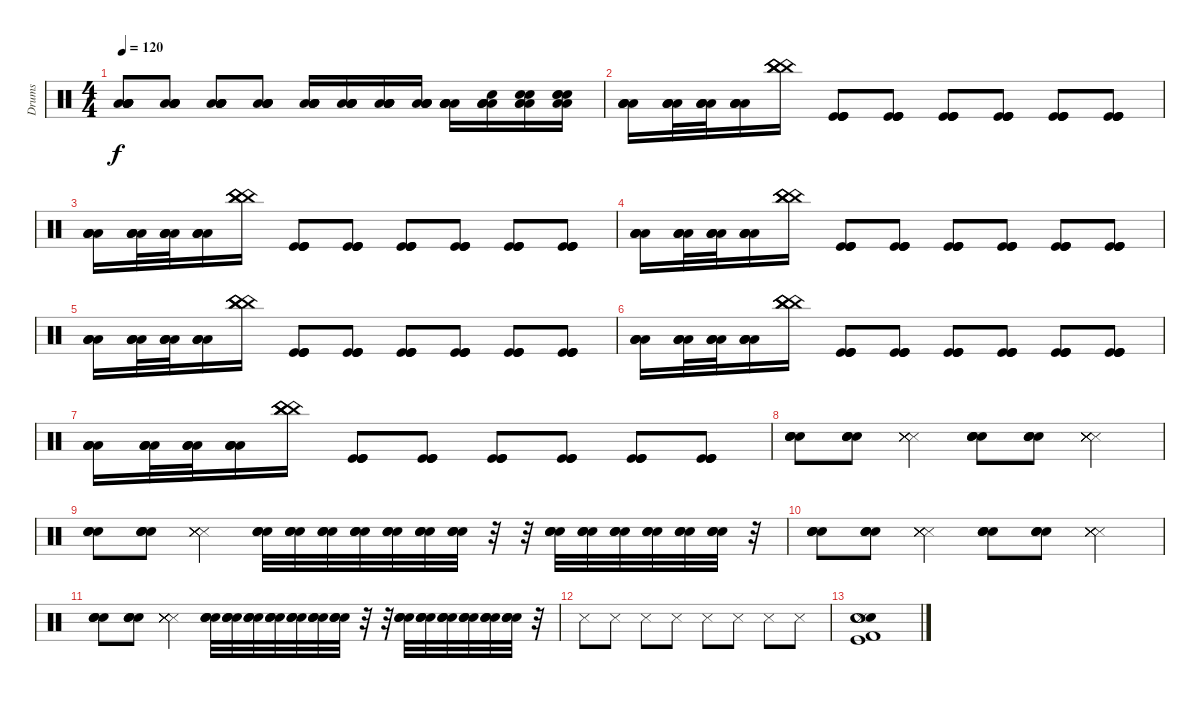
\track ("Drums" "Drums") {instrument percussion}
\staff {score}
\articulation defaults
\ts (4 4)
\tempo 120
\clef neutral
\ks c
("Low Floor Tom (hit)" "Low Floor Tom (hit)" "Low Floor Tom (hit)" "Low Floor Tom (hit)" "Low Floor Tom (hit)").8{dy f} ("Low Floor Tom (hit)" "Low Floor Tom (hit)" "Low Floor Tom (hit)" "Low Floor Tom (hit)" "Low Floor Tom (hit)").8 ("Low Floor Tom (hit)" "Low Floor Tom (hit)" "Low Floor Tom (hit)" "Low Floor Tom (hit)" "Low Floor Tom (hit)").8 ("Low Floor Tom (hit)" "Low Floor Tom (hit)" "Low Floor Tom (hit)" "Low Floor Tom (hit)" "Low Floor Tom (hit)").8 ("Low Floor Tom (hit)" "Low Floor Tom (hit)" "Low Floor Tom (hit)" "Low Floor Tom (hit)" "Low Floor Tom (hit)").16 ("Low Floor Tom (hit)" "Low Floor Tom (hit)" "Low Floor Tom (hit)" "Low Floor Tom (hit)" "Low Floor Tom (hit)").16 ("Low Floor Tom (hit)" "Low Floor Tom (hit)" "Low Floor Tom (hit)" "Low Floor Tom (hit)" "Low Floor Tom (hit)").16 ("Low Floor Tom (hit)" "Low Floor Tom (hit)" "Low Floor Tom (hit)" "Low Floor Tom (hit)" "Low Floor Tom (hit)").16 ("Low Floor Tom (hit)" "Low Floor Tom (hit)" "Low Floor Tom (hit)" "Low Floor Tom (hit)" "Low Floor Tom (hit)").16 ("Low Floor Tom (hit)" "Low Floor Tom (hit)" "Low Floor Tom (hit)" "Snare (hit) 2" "Low Floor Tom (hit)").16 ("Low Floor Tom (hit)" "Low Floor Tom (hit)" "Snare (hit) 2" "Snare (hit) 2" "Low Floor Tom (hit)").16 ("Low Floor Tom (hit)" "Snare (hit) 2" "Snare (hit) 2" "Snare (hit) 2" "Low Floor Tom (hit)").16 |
("Low Floor Tom (hit)" "Low Floor Tom (hit)" "Low Floor Tom (hit)" "Low Floor Tom (hit)").16 ("Low Floor Tom (hit)" "Low Floor Tom (hit)" "Low Floor Tom (hit)" "Low Floor Tom (hit)").32 ("Low Floor Tom (hit)" "Low Floor Tom (hit)" "Low Floor Tom (hit)" "Low Floor Tom (hit)").32 ("Low Floor Tom (hit)" "Low Floor Tom (hit)" "Low Floor Tom (hit)" "Low Floor Tom (hit)").16 ("China (hit)" "China (hit)" "China (hit)" "China (hit)").16 ("Kick (hit)" "Kick (hit)" "Kick (hit)" "Kick (hit)").8 ("Kick (hit)" "Kick (hit)" "Kick (hit)" "Kick (hit)").8 ("Kick (hit)" "Kick (hit)" "Kick (hit)" "Kick (hit)").8 ("Kick (hit)" "Kick (hit)" "Kick (hit)" "Kick (hit)").8 ("Kick (hit)" "Kick (hit)" "Kick (hit)" "Kick (hit)").8 ("Kick (hit)" "Kick (hit)" "Kick (hit)" "Kick (hit)").8 |
("Low Floor Tom (hit)" "Low Floor Tom (hit)" "Low Floor Tom (hit)" "Low Floor Tom (hit)").16 ("Low Floor Tom (hit)" "Low Floor Tom (hit)" "Low Floor Tom (hit)" "Low Floor Tom (hit)").32 ("Low Floor Tom (hit)" "Low Floor Tom (hit)" "Low Floor Tom (hit)" "Low Floor Tom (hit)").32 ("Low Floor Tom (hit)" "Low Floor Tom (hit)" "Low Floor Tom (hit)" "Low Floor Tom (hit)").16 ("China (hit)" "China (hit)" "China (hit)" "China (hit)").16 ("Kick (hit)" "Kick (hit)" "Kick (hit)" "Kick (hit)").8 ("Kick (hit)" "Kick (hit)" "Kick (hit)" "Kick (hit)").8 ("Kick (hit)" "Kick (hit)" "Kick (hit)" "Kick (hit)").8 ("Kick (hit)" "Kick (hit)" "Kick (hit)" "Kick (hit)").8 ("Kick (hit)" "Kick (hit)" "Kick (hit)" "Kick (hit)").8 ("Kick (hit)" "Kick (hit)" "Kick (hit)" "Kick (hit)").8 |
("Low Floor Tom (hit)" "Low Floor Tom (hit)" "Low Floor Tom (hit)" "Low Floor Tom (hit)").16 ("Low Floor Tom (hit)" "Low Floor Tom (hit)" "Low Floor Tom (hit)" "Low Floor Tom (hit)").32 ("Low Floor Tom (hit)" "Low Floor Tom (hit)" "Low Floor Tom (hit)" "Low Floor Tom (hit)").32 ("Low Floor Tom (hit)" "Low Floor Tom (hit)" "Low Floor Tom (hit)" "Low Floor Tom (hit)").16 ("China (hit)" "China (hit)" "China (hit)" "China (hit)").16 ("Kick (hit)" "Kick (hit)" "Kick (hit)" "Kick (hit)").8 ("Kick (hit)" "Kick (hit)" "Kick (hit)" "Kick (hit)").8 ("Kick (hit)" "Kick (hit)" "Kick (hit)" "Kick (hit)").8 ("Kick (hit)" "Kick (hit)" "Kick (hit)" "Kick (hit)").8 ("Kick (hit)" "Kick (hit)" "Kick (hit)" "Kick (hit)").8 ("Kick (hit)" "Kick (hit)" "Kick (hit)" "Kick (hit)").8 |
("Low Floor Tom (hit)" "Low Floor Tom (hit)" "Low Floor Tom (hit)" "Low Floor Tom (hit)").16 ("Low Floor Tom (hit)" "Low Floor Tom (hit)" "Low Floor Tom (hit)" "Low Floor Tom (hit)").32 ("Low Floor Tom (hit)" "Low Floor Tom (hit)" "Low Floor Tom (hit)" "Low Floor Tom (hit)").32 ("Low Floor Tom (hit)" "Low Floor Tom (hit)" "Low Floor Tom (hit)" "Low Floor Tom (hit)").16 ("China (hit)" "China (hit)" "China (hit)" "China (hit)").16 ("Kick (hit)" "Kick (hit)" "Kick (hit)" "Kick (hit)").8 ("Kick (hit)" "Kick (hit)" "Kick (hit)" "Kick (hit)").8 ("Kick (hit)" "Kick (hit)" "Kick (hit)" "Kick (hit)").8 ("Kick (hit)" "Kick (hit)" "Kick (hit)" "Kick (hit)").8 ("Kick (hit)" "Kick (hit)" "Kick (hit)" "Kick (hit)").8 ("Kick (hit)" "Kick (hit)" "Kick (hit)" "Kick (hit)").8 |
("Low Floor Tom (hit)" "Low Floor Tom (hit)" "Low Floor Tom (hit)" "Low Floor Tom (hit)").16 ("Low Floor Tom (hit)" "Low Floor Tom (hit)" "Low Floor Tom (hit)" "Low Floor Tom (hit)").32 ("Low Floor Tom (hit)" "Low Floor Tom (hit)" "Low Floor Tom (hit)" "Low Floor Tom (hit)").32 ("Low Floor Tom (hit)" "Low Floor Tom (hit)" "Low Floor Tom (hit)" "Low Floor Tom (hit)").16 ("China (hit)" "China (hit)" "China (hit)" "China (hit)").16 ("Kick (hit)" "Kick (hit)" "Kick (hit)" "Kick (hit)").8 ("Kick (hit)" "Kick (hit)" "Kick (hit)" "Kick (hit)").8 ("Kick (hit)" "Kick (hit)" "Kick (hit)" "Kick (hit)").8 ("Kick (hit)" "Kick (hit)" "Kick (hit)" "Kick (hit)").8 ("Kick (hit)" "Kick (hit)" "Kick (hit)" "Kick (hit)").8 ("Kick (hit)" "Kick (hit)" "Kick (hit)" "Kick (hit)").8 |
("Low Floor Tom (hit)" "Low Floor Tom (hit)" "Low Floor Tom (hit)" "Low Floor Tom (hit)").16 ("Low Floor Tom (hit)" "Low Floor Tom (hit)" "Low Floor Tom (hit)" "Low Floor Tom (hit)").32 ("Low Floor Tom (hit)" "Low Floor Tom (hit)" "Low Floor Tom (hit)" "Low Floor Tom (hit)").32 ("Low Floor Tom (hit)" "Low Floor Tom (hit)" "Low Floor Tom (hit)" "Low Floor Tom (hit)").16 ("China (hit)" "China (hit)" "China (hit)" "China (hit)").16 ("Kick (hit)" "Kick (hit)" "Kick (hit)" "Kick (hit)").8 ("Kick (hit)" "Kick (hit)" "Kick (hit)" "Kick (hit)").8 ("Kick (hit)" "Kick (hit)" "Kick (hit)" "Kick (hit)").8 ("Kick (hit)" "Kick (hit)" "Kick (hit)" "Kick (hit)").8 ("Kick (hit)" "Kick (hit)" "Kick (hit)" "Kick (hit)").8 ("Kick (hit)" "Kick (hit)" "Kick (hit)" "Kick (hit)").8 |
("Snare (hit) 2" "Snare (hit) 2" "Snare (hit) 2" "Snare (hit) 2").8 ("Snare (hit) 2" "Snare (hit) 2" "Snare (hit) 2" "Snare (hit) 2").8 ("Snare (side stick) 3" "Snare (side stick) 3" "Snare (side stick) 3" "Snare (side stick) 3" "Snare (side stick) 3" "Snare (side stick) 3").4 ("Snare (hit) 2" "Snare (hit) 2" "Snare (hit) 2" "Snare (hit) 2").8 ("Snare (hit) 2" "Snare (hit) 2" "Snare (hit) 2" "Snare (hit) 2").8 ("Snare (side stick) 3" "Snare (side stick) 3" "Snare (side stick) 3" "Snare (side stick) 3" "Snare (side stick) 3" "Snare (side stick) 3").4 |
("Snare (hit) 2" "Snare (hit) 2" "Snare (hit) 2" "Snare (hit) 2").8 ("Snare (hit) 2" "Snare (hit) 2" "Snare (hit) 2" "Snare (hit) 2").8 ("Snare (side stick) 3" "Snare (side stick) 3" "Snare (side stick) 3" "Snare (side stick) 3" "Snare (side stick) 3" "Snare (side stick) 3").4 ("Snare (hit) 2" "Snare (hit) 2" "Snare (hit) 2" "Snare (hit) 2").32 ("Snare (hit) 2" "Snare (hit) 2" "Snare (hit) 2" "Snare (hit) 2").32 ("Snare (hit) 2" "Snare (hit) 2" "Snare (hit) 2" "Snare (hit) 2").32 ("Snare (hit) 2" "Snare (hit) 2" "Snare (hit) 2" "Snare (hit) 2").32 ("Snare (hit) 2" "Snare (hit) 2" "Snare (hit) 2" "Snare (hit) 2").32 ("Snare (hit) 2" "Snare (hit) 2" "Snare (hit) 2" "Snare (hit) 2").32 ("Snare (hit) 2" "Snare (hit) 2" "Snare (hit) 2" "Snare (hit) 2").32 r.32 r.32 ("Snare (hit) 2" "Snare (hit) 2" "Snare (hit) 2" "Snare (hit) 2").32 ("Snare (hit) 2" "Snare (hit) 2" "Snare (hit) 2" "Snare (hit) 2").32 ("Snare (hit) 2" "Snare (hit) 2" "Snare (hit) 2" "Snare (hit) 2").32 ("Snare (hit) 2" "Snare (hit) 2" "Snare (hit) 2" "Snare (hit) 2").32 ("Snare (hit) 2" "Snare (hit) 2" "Snare (hit) 2" "Snare (hit) 2").32 ("Snare (hit) 2" "Snare (hit) 2" "Snare (hit) 2" "Snare (hit) 2").32 r.32 |
("Snare (hit) 2" "Snare (hit) 2" "Snare (hit) 2" "Snare (hit) 2").8 ("Snare (hit) 2" "Snare (hit) 2" "Snare (hit) 2" "Snare (hit) 2").8 ("Snare (side stick) 3" "Snare (side stick) 3" "Snare (side stick) 3" "Snare (side stick) 3" "Snare (side stick) 3" "Snare (side stick) 3").4 ("Snare (hit) 2" "Snare (hit) 2" "Snare (hit) 2" "Snare (hit) 2").8 ("Snare (hit) 2" "Snare (hit) 2" "Snare (hit) 2" "Snare (hit) 2").8 ("Snare (side stick) 3" "Snare (side stick) 3" "Snare (side stick) 3" "Snare (side stick) 3" "Snare (side stick) 3" "Snare (side stick) 3").4 |
("Snare (hit) 2" "Snare (hit) 2" "Snare (hit) 2" "Snare (hit) 2").8 ("Snare (hit) 2" "Snare (hit) 2" "Snare (hit) 2" "Snare (hit) 2").8 ("Snare (side stick) 3" "Snare (side stick) 3" "Snare (side stick) 3" "Snare (side stick) 3" "Snare (side stick) 3" "Snare (side stick) 3").4 ("Snare (hit) 2" "Snare (hit) 2" "Snare (hit) 2" "Snare (hit) 2").32 ("Snare (hit) 2" "Snare (hit) 2" "Snare (hit) 2" "Snare (hit) 2").32 ("Snare (hit) 2" "Snare (hit) 2" "Snare (hit) 2" "Snare (hit) 2").32 ("Snare (hit) 2" "Snare (hit) 2" "Snare (hit) 2" "Snare (hit) 2").32 ("Snare (hit) 2" "Snare (hit) 2" "Snare (hit) 2" "Snare (hit) 2").32 ("Snare (hit) 2" "Snare (hit) 2" "Snare (hit) 2" "Snare (hit) 2").32 ("Snare (hit) 2" "Snare (hit) 2" "Snare (hit) 2" "Snare (hit) 2").32 r.32 r.32 ("Snare (hit) 2" "Snare (hit) 2" "Snare (hit) 2" "Snare (hit) 2").32 ("Snare (hit) 2" "Snare (hit) 2" "Snare (hit) 2" "Snare (hit) 2").32 ("Snare (hit) 2" "Snare (hit) 2" "Snare (hit) 2" "Snare (hit) 2").32 ("Snare (hit) 2" "Snare (hit) 2" "Snare (hit) 2" "Snare (hit) 2").32 ("Snare (hit) 2" "Snare (hit) 2" "Snare (hit) 2" "Snare (hit) 2").32 ("Snare (hit) 2" "Snare (hit) 2" "Snare (hit) 2" "Snare (hit) 2").32 r.32 |
"Snare (side stick) 3".8 "Snare (side stick) 3".8 "Snare (side stick) 3".8 "Snare (side stick) 3".8 "Snare (side stick) 3".8 "Snare (side stick) 3".8 "Snare (side stick) 3".8 "Snare (side stick) 3".8 |
("Metronome (bell)" "Kick (hit)" "Kick (hit) 2" "Snare (side stick) 3" "Snare (hit) 2" "Hand Clap (hit)").1
